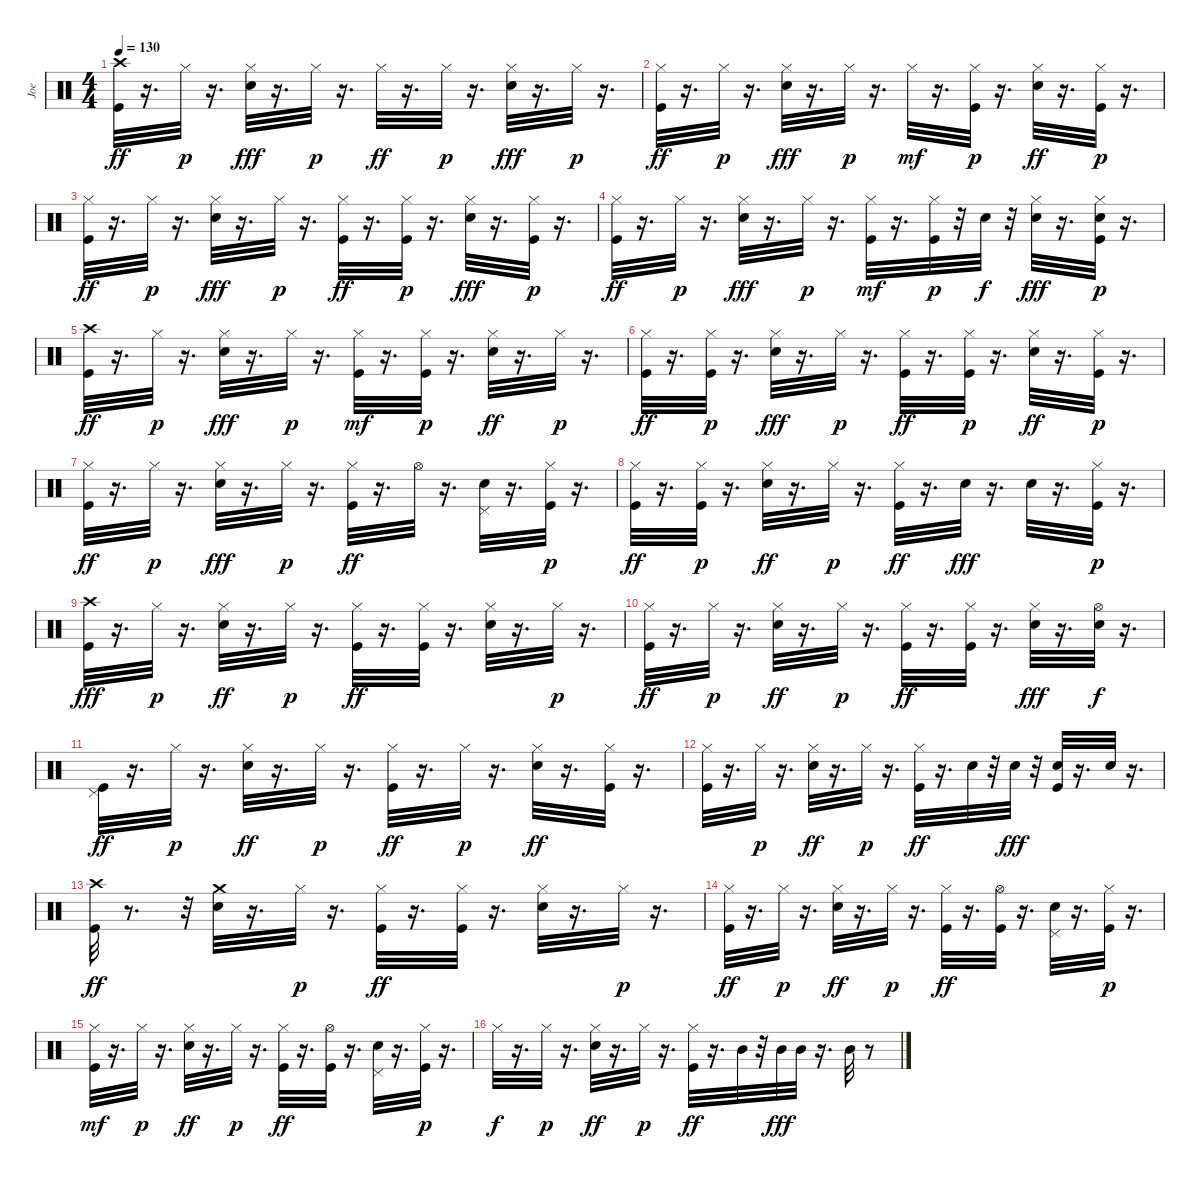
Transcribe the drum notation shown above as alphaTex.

\track ("Joe" "Joe") {instrument percussion}
\staff {score}
\articulation defaults
\ts (4 4)
\tempo 130
\clef neutral
\ks c
("Crash high (hit)" "Kick (hit)").32{dy ff} r.16{d} "Hi-Hat (closed)".32{dy p} r.16{d} ("Snare (hit) 2" "Hi-Hat (closed)").32{dy fff} r.16{d} "Hi-Hat (closed)".32{dy p} r.16{d} "Hi-Hat (closed)".32{dy ff} r.16{d} "Hi-Hat (closed)".32{dy p} r.16{d} ("Hi-Hat (closed)" "Snare (hit) 2").32{dy fff} r.16{d} "Hi-Hat (closed)".32{dy p} r.16{d} |
("Hi-Hat (closed)" "Kick (hit)").32{dy ff} r.16{d} "Hi-Hat (closed)".32{dy p} r.16{d} ("Snare (hit) 2" "Hi-Hat (closed)").32{dy fff} r.16{d} "Hi-Hat (closed)".32{dy p} r.16{d} "Hi-Hat (closed)".32{dy mf} r.16{d} ("Kick (hit)" "Hi-Hat (closed)").32{dy p} r.16{d} ("Hi-Hat (closed)" "Snare (hit) 2").32{dy ff} r.16{d} ("Kick (hit)" "Hi-Hat (closed)").32{dy p} r.16{d} |
("Hi-Hat (closed)" "Kick (hit)").32{dy ff} r.16{d} "Hi-Hat (closed)".32{dy p} r.16{d} ("Snare (hit) 2" "Hi-Hat (closed)").32{dy fff} r.16{d} "Hi-Hat (closed)".32{dy p} r.16{d} ("Hi-Hat (closed)" "Kick (hit)").32{dy ff} r.16{d} ("Kick (hit)" "Hi-Hat (closed)").32{dy p} r.16{d} ("Snare (hit) 2" "Hi-Hat (closed)").32{dy fff} r.16{d} ("Kick (hit)" "Hi-Hat (closed)").32{dy p} r.16{d} |
("Hi-Hat (closed)" "Kick (hit)").32{dy ff} r.16{d} "Hi-Hat (closed)".32{dy p} r.16{d} ("Snare (hit) 2" "Hi-Hat (closed)").32{dy fff} r.16{d} "Hi-Hat (closed)".32{dy p} r.16{d} ("Kick (hit)" "Hi-Hat (closed)").32{dy mf} r.16{d} ("Kick (hit)" "Hi-Hat (closed)").32{dy p} r.32 "Snare (hit) 2".32{dy f} r.32 ("Hi-Hat (closed)" "Snare (hit) 2").32{dy fff} r.16{d} ("Kick (hit)" "Snare (hit) 2" "Hi-Hat (closed)").32{dy p} r.16{d} |
("Kick (hit)" "Crash high (hit)").32{dy ff} r.16{d} "Hi-Hat (closed)".32{dy p} r.16{d} ("Snare (hit) 2" "Hi-Hat (closed)").32{dy fff} r.16{d} "Hi-Hat (closed)".32{dy p} r.16{d} ("Kick (hit)" "Hi-Hat (closed)").32{dy mf} r.16{d} ("Kick (hit)" "Hi-Hat (closed)").32{dy p} r.16{d} ("Hi-Hat (closed)" "Snare (hit) 2").32{dy ff} r.16{d} "Hi-Hat (closed)".32{dy p} r.16{d} |
("Hi-Hat (closed)" "Kick (hit)").32{dy ff} r.16{d} ("Kick (hit)" "Hi-Hat (closed)").32{dy p} r.16{d} ("Snare (hit) 2" "Hi-Hat (closed)").32{dy fff} r.16{d} "Hi-Hat (closed)".32{dy p} r.16{d} ("Hi-Hat (closed)" "Kick (hit)").32{dy ff} r.16{d} ("Kick (hit)" "Hi-Hat (closed)").32{dy p} r.16{d} ("Hi-Hat (closed)" "Snare (hit) 2").32{dy ff} r.16{d} ("Kick (hit)" "Hi-Hat (closed)").32{dy p} r.16{d} |
("Hi-Hat (closed)" "Kick (hit)").32{dy ff} r.16{d} "Hi-Hat (closed)".32{dy p} r.16{d} ("Snare (hit) 2" "Hi-Hat (closed)").32{dy fff} r.16{d} "Hi-Hat (closed)".32{dy p} r.16{d} ("Hi-Hat (closed)" "Kick (hit)").32{dy ff} r.16{d} "Hi-Hat (open)".32 r.16{d} ("Pedal Hi-Hat (hit)" "Snare (hit) 2").32 r.16{d} ("Kick (hit)" "Hi-Hat (closed)").32{dy p} r.16{d} |
("Hi-Hat (closed)" "Kick (hit)").32{dy ff} r.16{d} ("Kick (hit)" "Hi-Hat (closed)").32{dy p} r.16{d} ("Hi-Hat (closed)" "Snare (hit) 2").32{dy ff} r.16{d} "Hi-Hat (closed)".32{dy p} r.16{d} ("Hi-Hat (closed)" "Kick (hit)").32{dy ff} r.16{d} "Snare (hit) 2".32{dy fff} r.16{d} "Snare (hit) 2".32 r.16{d} ("Kick (hit)" "Hi-Hat (closed)").32{dy p} r.16{d} |
("Kick (hit)" "Crash high (hit)").32{dy fff} r.16{d} "Hi-Hat (closed)".32{dy p} r.16{d} ("Snare (hit) 2" "Hi-Hat (closed)").32{dy ff} r.16{d} "Hi-Hat (closed)".32{dy p} r.16{d} ("Kick (hit)" "Hi-Hat (closed)").32{dy ff} r.16{d} ("Hi-Hat (closed)" "Kick (hit)").32 r.16{d} ("Snare (hit) 2" "Hi-Hat (closed)").32 r.16{d} "Hi-Hat (closed)".32{dy p} r.16{d} |
("Kick (hit)" "Hi-Hat (closed)").32{dy ff} r.16{d} "Hi-Hat (closed)".32{dy p} r.16{d} ("Hi-Hat (closed)" "Snare (hit) 2").32{dy ff} r.16{d} "Hi-Hat (closed)".32{dy p} r.16{d} ("Kick (hit)" "Hi-Hat (closed)").32{dy ff} r.16{d} ("Hi-Hat (closed)" "Kick (hit)").32 r.16{d} ("Snare (hit) 2" "Hi-Hat (closed)").32{dy fff} r.16{d} ("Snare (hit) 2" "Hi-Hat (open)").32{dy f} r.16{d} |
("Pedal Hi-Hat (hit)" "Kick (hit)").32{dy ff} r.16{d} "Hi-Hat (closed)".32{dy p} r.16{d} ("Snare (hit) 2" "Hi-Hat (closed)").32{dy ff} r.16{d} "Hi-Hat (closed)".32{dy p} r.16{d} ("Kick (hit)" "Hi-Hat (closed)").32{dy ff} r.16{d} "Hi-Hat (closed)".32{dy p} r.16{d} ("Snare (hit) 2" "Hi-Hat (closed)").32{dy ff} r.16{d} ("Hi-Hat (closed)" "Kick (hit)").32 r.16{d} |
("Kick (hit)" "Hi-Hat (closed)").32 r.16{d} "Hi-Hat (closed)".32{dy p} r.16{d} ("Hi-Hat (closed)" "Snare (hit) 2").32{dy ff} r.16{d} "Hi-Hat (closed)".32{dy p} r.16{d} ("Hi-Hat (closed)" "Kick (hit)").32{dy ff} r.16{d} "Snare (hit) 2".32 r.32 "Snare (hit) 2".32{dy fff} r.32 ("Snare (hit) 2" "Kick (hit)").32 r.16{d} "Snare (hit) 2".32 r.16{d} |
("Kick (hit)" "Crash high (hit)").32{dy ff} r.8{d} r.32 ("Crash medium (hit)" "Snare (hit) 2").32 r.16{d} "Hi-Hat (closed)".32{dy p} r.16{d} ("Kick (hit)" "Hi-Hat (closed)").32{dy ff} r.16{d} ("Hi-Hat (closed)" "Kick (hit)").32 r.16{d} ("Hi-Hat (closed)" "Snare (hit) 2").32 r.16{d} "Hi-Hat (closed)".32{dy p} r.16{d} |
("Hi-Hat (closed)" "Kick (hit)").32{dy ff} r.16{d} "Hi-Hat (closed)".32{dy p} r.16{d} ("Hi-Hat (closed)" "Snare (hit) 2").32{dy ff} r.16{d} "Hi-Hat (closed)".32{dy p} r.16{d} ("Hi-Hat (closed)" "Kick (hit)").32{dy ff} r.16{d} ("Hi-Hat (open)" "Kick (hit)").32 r.16{d} ("Snare (hit) 2" "Pedal Hi-Hat (hit)").32 r.16{d} ("Kick (hit)" "Hi-Hat (closed)").32{dy p} r.16{d} |
("Kick (hit)" "Hi-Hat (closed)").32{dy mf} r.16{d} "Hi-Hat (closed)".32{dy p} r.16{d} ("Hi-Hat (closed)" "Snare (hit) 2").32{dy ff} r.16{d} "Hi-Hat (closed)".32{dy p} r.16{d} ("Hi-Hat (closed)" "Kick (hit)").32{dy ff} r.16{d} ("Kick (hit)" "Hi-Hat (open)").32 r.16{d} ("Pedal Hi-Hat (hit)" "Snare (hit) 2").32 r.16{d} ("Kick (hit)" "Hi-Hat (closed)").32{dy p} r.16{d} |
"Hi-Hat (closed)".32{dy f} r.16{d} "Hi-Hat (closed)".32{dy p} r.16{d} ("Hi-Hat (closed)" "Snare (hit) 2").32{dy ff} r.16{d} "Hi-Hat (closed)".32{dy p} r.16{d} ("Hi-Hat (closed)" "Kick (hit)").32{dy ff} r.16{d} "Mid Tom (hit)".32 r.32 "Mid Tom (hit)".32{dy fff} "Mid Tom (hit)".32 r.16{d} "Mid Tom (hit)".32 r.8
